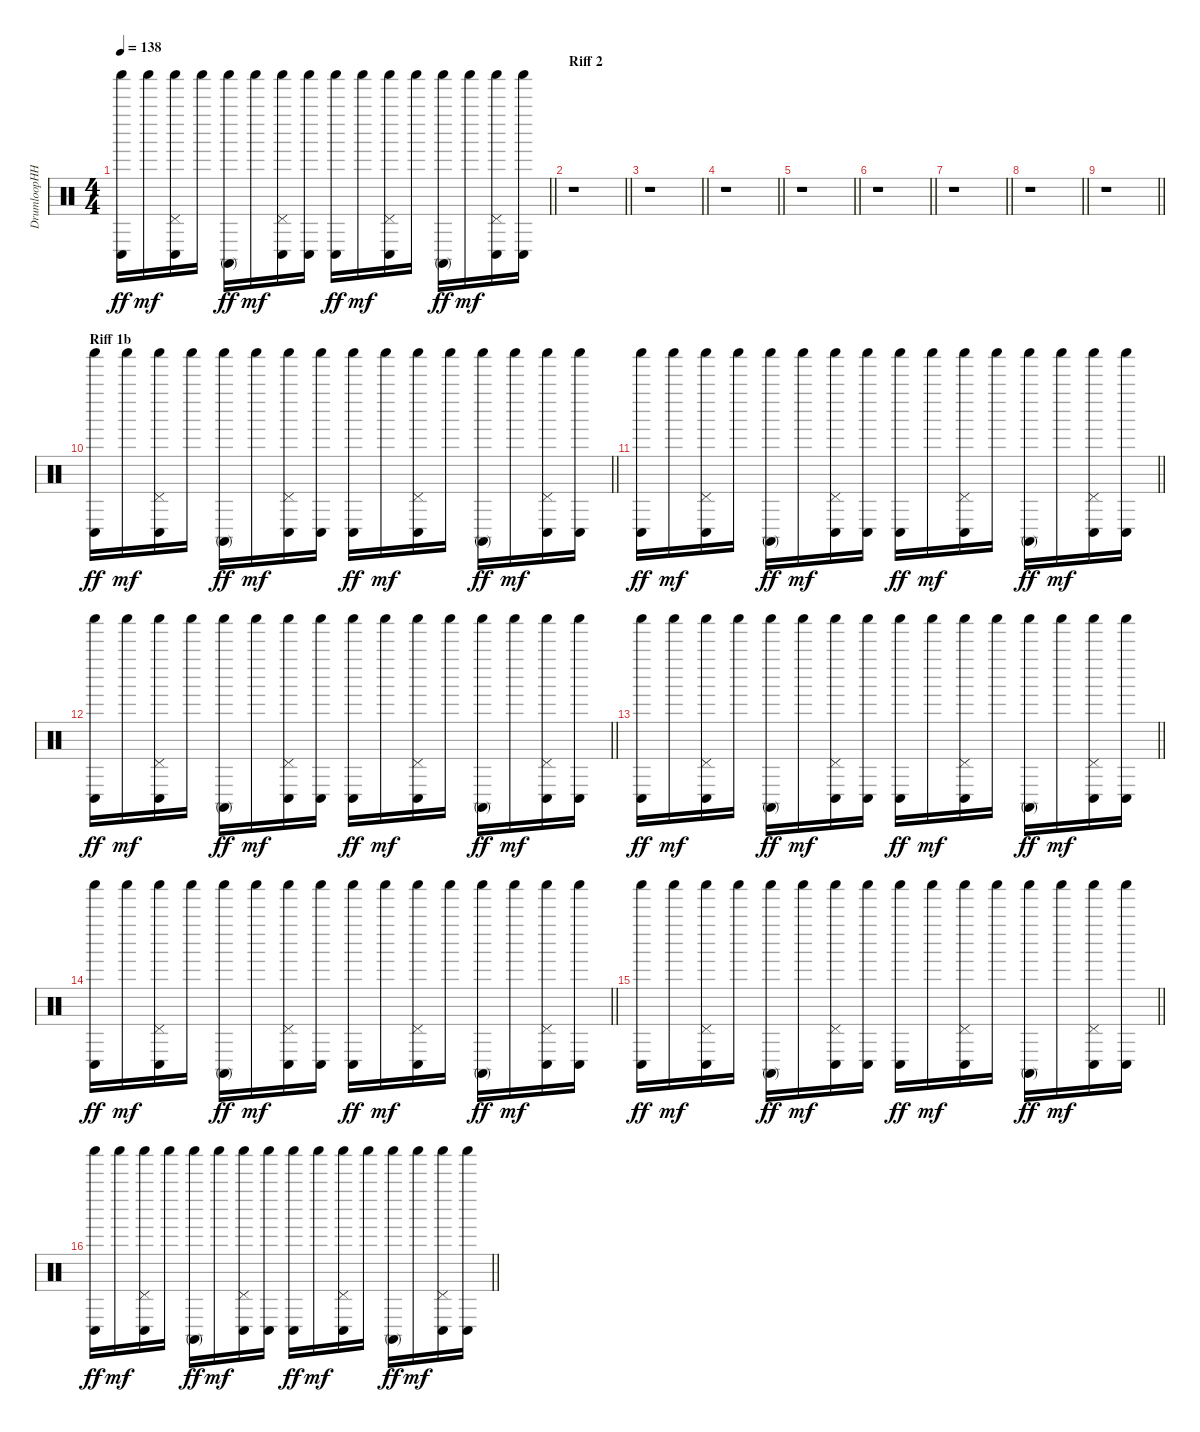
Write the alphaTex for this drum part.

\track ("DrumloopHH" "DrumloopHH") {instrument percussion}
\staff {score}
\articulation defaults
\ts (4 4)
\tempo 138
\clef neutral
\barLineRight lightlight
\ks c
("Conga low (hit)" "Shaker (hit)").16{dy ff} "Shaker (hit)".16{dy mf} ("Conga low (hit)" "Pedal Hi-Hat (hit)" "Shaker (hit)").16 "Shaker (hit)".16 ("Conga high (mute)" "Shaker (hit)").16{dy ff} "Shaker (hit)".16{dy mf} ("Conga low (hit)" "Pedal Hi-Hat (hit)" "Shaker (hit)").16 ("Conga low (hit)" "Shaker (hit)").16 ("Conga low (hit)" "Shaker (hit)").16{dy ff} "Shaker (hit)".16{dy mf} ("Conga low (hit)" "Pedal Hi-Hat (hit)" "Shaker (hit)").16 "Shaker (hit)".16 ("Conga high (mute)" "Shaker (hit)").16{dy ff} "Shaker (hit)".16{dy mf} ("Conga low (hit)" "Pedal Hi-Hat (hit)" "Shaker (hit)").16 ("Conga low (hit)" "Shaker (hit)").16 |
\section ("" "Riff 2")
\barLineRight lightlight
r.1 |
\barLineRight lightlight
r.1 |
\barLineRight lightlight
r.1 |
\barLineRight lightlight
r.1 |
\barLineRight lightlight
r.1 |
\barLineRight lightlight
r.1 |
\barLineRight lightlight
r.1 |
\barLineRight lightlight
r.1 |
\section ("" "Riff 1b")
\barLineRight lightlight
("Conga low (hit)" "Shaker (hit)").16{dy ff} "Shaker (hit)".16{dy mf} ("Conga low (hit)" "Pedal Hi-Hat (hit)" "Shaker (hit)").16 "Shaker (hit)".16 ("Conga high (mute)" "Shaker (hit)").16{dy ff} "Shaker (hit)".16{dy mf} ("Conga low (hit)" "Pedal Hi-Hat (hit)" "Shaker (hit)").16 ("Conga low (hit)" "Shaker (hit)").16 ("Conga low (hit)" "Shaker (hit)").16{dy ff} "Shaker (hit)".16{dy mf} ("Conga low (hit)" "Pedal Hi-Hat (hit)" "Shaker (hit)").16 "Shaker (hit)".16 ("Conga high (mute)" "Shaker (hit)").16{dy ff} "Shaker (hit)".16{dy mf} ("Conga low (hit)" "Pedal Hi-Hat (hit)" "Shaker (hit)").16 ("Conga low (hit)" "Shaker (hit)").16 |
\barLineRight lightlight
("Conga low (hit)" "Shaker (hit)").16{dy ff} "Shaker (hit)".16{dy mf} ("Conga low (hit)" "Pedal Hi-Hat (hit)" "Shaker (hit)").16 "Shaker (hit)".16 ("Conga high (mute)" "Shaker (hit)").16{dy ff} "Shaker (hit)".16{dy mf} ("Conga low (hit)" "Pedal Hi-Hat (hit)" "Shaker (hit)").16 ("Conga low (hit)" "Shaker (hit)").16 ("Conga low (hit)" "Shaker (hit)").16{dy ff} "Shaker (hit)".16{dy mf} ("Conga low (hit)" "Pedal Hi-Hat (hit)" "Shaker (hit)").16 "Shaker (hit)".16 ("Conga high (mute)" "Shaker (hit)").16{dy ff} "Shaker (hit)".16{dy mf} ("Conga low (hit)" "Pedal Hi-Hat (hit)" "Shaker (hit)").16 ("Conga low (hit)" "Shaker (hit)").16 |
\barLineRight lightlight
("Conga low (hit)" "Shaker (hit)").16{dy ff} "Shaker (hit)".16{dy mf} ("Conga low (hit)" "Pedal Hi-Hat (hit)" "Shaker (hit)").16 "Shaker (hit)".16 ("Conga high (mute)" "Shaker (hit)").16{dy ff} "Shaker (hit)".16{dy mf} ("Conga low (hit)" "Pedal Hi-Hat (hit)" "Shaker (hit)").16 ("Conga low (hit)" "Shaker (hit)").16 ("Conga low (hit)" "Shaker (hit)").16{dy ff} "Shaker (hit)".16{dy mf} ("Conga low (hit)" "Pedal Hi-Hat (hit)" "Shaker (hit)").16 "Shaker (hit)".16 ("Conga high (mute)" "Shaker (hit)").16{dy ff} "Shaker (hit)".16{dy mf} ("Conga low (hit)" "Pedal Hi-Hat (hit)" "Shaker (hit)").16 ("Conga low (hit)" "Shaker (hit)").16 |
\barLineRight lightlight
("Conga low (hit)" "Shaker (hit)").16{dy ff} "Shaker (hit)".16{dy mf} ("Conga low (hit)" "Pedal Hi-Hat (hit)" "Shaker (hit)").16 "Shaker (hit)".16 ("Conga high (mute)" "Shaker (hit)").16{dy ff} "Shaker (hit)".16{dy mf} ("Conga low (hit)" "Pedal Hi-Hat (hit)" "Shaker (hit)").16 ("Conga low (hit)" "Shaker (hit)").16 ("Conga low (hit)" "Shaker (hit)").16{dy ff} "Shaker (hit)".16{dy mf} ("Conga low (hit)" "Pedal Hi-Hat (hit)" "Shaker (hit)").16 "Shaker (hit)".16 ("Conga high (mute)" "Shaker (hit)").16{dy ff} "Shaker (hit)".16{dy mf} ("Conga low (hit)" "Pedal Hi-Hat (hit)" "Shaker (hit)").16 ("Conga low (hit)" "Shaker (hit)").16 |
\barLineRight lightlight
("Conga low (hit)" "Shaker (hit)").16{dy ff} "Shaker (hit)".16{dy mf} ("Conga low (hit)" "Pedal Hi-Hat (hit)" "Shaker (hit)").16 "Shaker (hit)".16 ("Conga high (mute)" "Shaker (hit)").16{dy ff} "Shaker (hit)".16{dy mf} ("Conga low (hit)" "Pedal Hi-Hat (hit)" "Shaker (hit)").16 ("Conga low (hit)" "Shaker (hit)").16 ("Conga low (hit)" "Shaker (hit)").16{dy ff} "Shaker (hit)".16{dy mf} ("Conga low (hit)" "Pedal Hi-Hat (hit)" "Shaker (hit)").16 "Shaker (hit)".16 ("Conga high (mute)" "Shaker (hit)").16{dy ff} "Shaker (hit)".16{dy mf} ("Conga low (hit)" "Pedal Hi-Hat (hit)" "Shaker (hit)").16 ("Conga low (hit)" "Shaker (hit)").16 |
\barLineRight lightlight
("Conga low (hit)" "Shaker (hit)").16{dy ff} "Shaker (hit)".16{dy mf} ("Conga low (hit)" "Pedal Hi-Hat (hit)" "Shaker (hit)").16 "Shaker (hit)".16 ("Conga high (mute)" "Shaker (hit)").16{dy ff} "Shaker (hit)".16{dy mf} ("Conga low (hit)" "Pedal Hi-Hat (hit)" "Shaker (hit)").16 ("Conga low (hit)" "Shaker (hit)").16 ("Conga low (hit)" "Shaker (hit)").16{dy ff} "Shaker (hit)".16{dy mf} ("Conga low (hit)" "Pedal Hi-Hat (hit)" "Shaker (hit)").16 "Shaker (hit)".16 ("Conga high (mute)" "Shaker (hit)").16{dy ff} "Shaker (hit)".16{dy mf} ("Conga low (hit)" "Pedal Hi-Hat (hit)" "Shaker (hit)").16 ("Conga low (hit)" "Shaker (hit)").16 |
\barLineRight lightlight
("Conga low (hit)" "Shaker (hit)").16{dy ff} "Shaker (hit)".16{dy mf} ("Conga low (hit)" "Pedal Hi-Hat (hit)" "Shaker (hit)").16 "Shaker (hit)".16 ("Conga high (mute)" "Shaker (hit)").16{dy ff} "Shaker (hit)".16{dy mf} ("Conga low (hit)" "Pedal Hi-Hat (hit)" "Shaker (hit)").16 ("Conga low (hit)" "Shaker (hit)").16 ("Conga low (hit)" "Shaker (hit)").16{dy ff} "Shaker (hit)".16{dy mf} ("Conga low (hit)" "Pedal Hi-Hat (hit)" "Shaker (hit)").16 "Shaker (hit)".16 ("Conga high (mute)" "Shaker (hit)").16{dy ff} "Shaker (hit)".16{dy mf} ("Conga low (hit)" "Pedal Hi-Hat (hit)" "Shaker (hit)").16 ("Conga low (hit)" "Shaker (hit)").16
